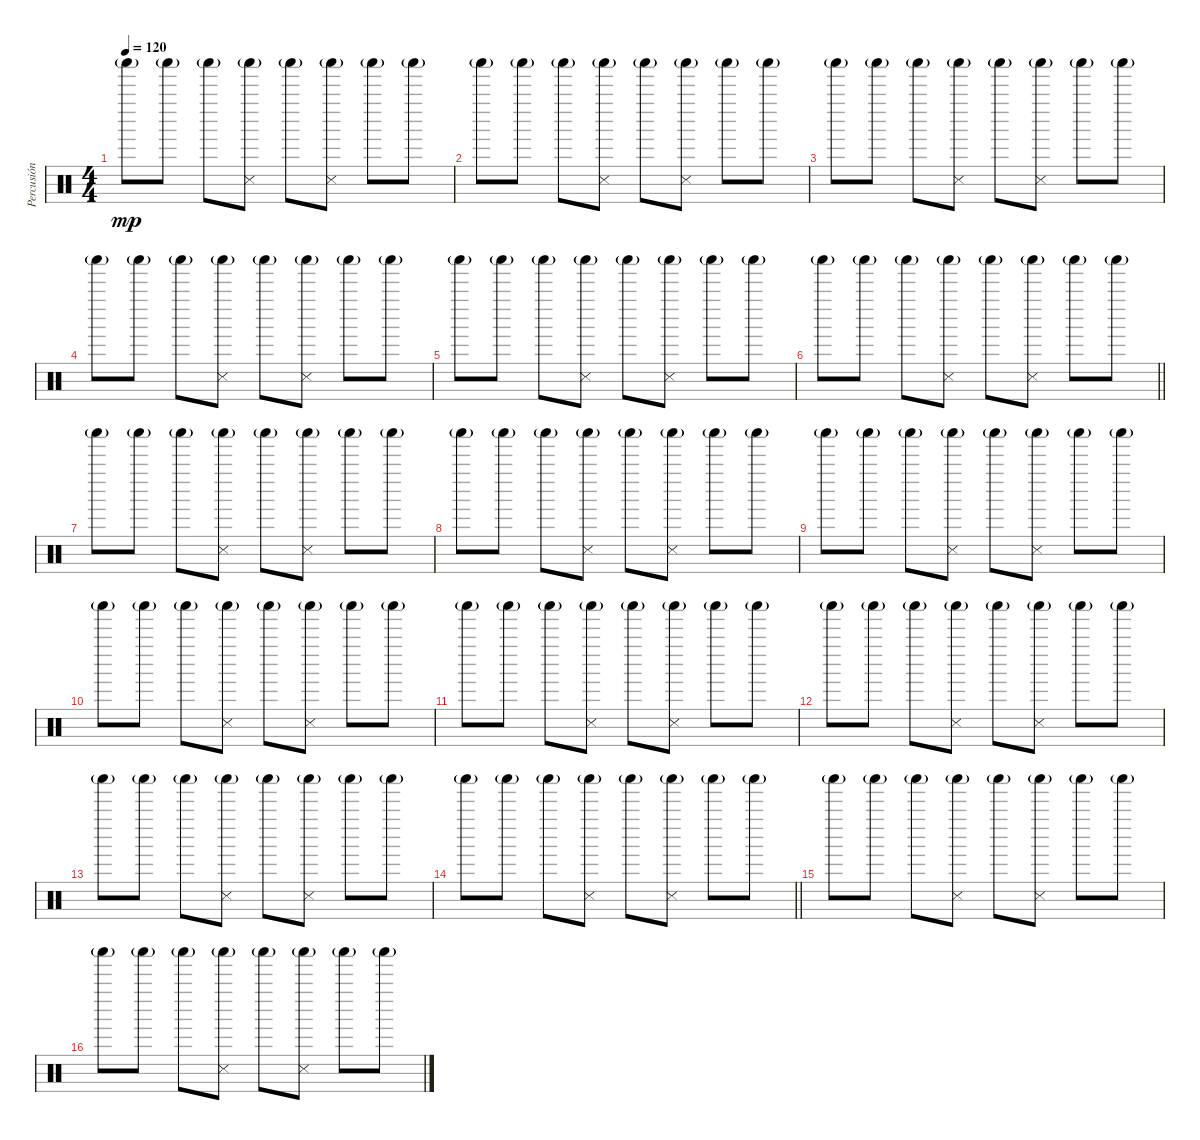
\track ("Percusión" "Percusión") {instrument percussion}
\staff {score}
\articulation defaults
\ts (4 4)
\tempo 120
\clef neutral
\ks c "Shaker (hit)"{g}.8{dy mp} "Shaker (hit)"{g}.8 "Shaker (hit)"{g}.8
("Snare (side stick) 3" "Shaker (hit)"{g}).8 "Shaker (hit)"{g}.8 ("Snare (side stick) 3" "Shaker (hit)"{g}).8 "Shaker (hit)"{g}.8 "Shaker (hit)"{g}.8 |
"Shaker (hit)"{g}.8 "Shaker (hit)"{g}.8 "Shaker (hit)"{g}.8 ("Snare (side stick) 3" "Shaker (hit)"{g}).8 "Shaker (hit)"{g}.8 ("Snare (side stick) 3" "Shaker (hit)"{g}).8 "Shaker (hit)"{g}.8 "Shaker (hit)"{g}.8 |
"Shaker (hit)"{g}.8 "Shaker (hit)"{g}.8 "Shaker (hit)"{g}.8 ("Snare (side stick) 3" "Shaker (hit)"{g}).8 "Shaker (hit)"{g}.8 ("Snare (side stick) 3" "Shaker (hit)"{g}).8 "Shaker (hit)"{g}.8 "Shaker (hit)"{g}.8 |
"Shaker (hit)"{g}.8 "Shaker (hit)"{g}.8 "Shaker (hit)"{g}.8 ("Snare (side stick) 3" "Shaker (hit)"{g}).8 "Shaker (hit)"{g}.8 ("Snare (side stick) 3" "Shaker (hit)"{g}).8 "Shaker (hit)"{g}.8 "Shaker (hit)"{g}.8 |
"Shaker (hit)"{g}.8 "Shaker (hit)"{g}.8 "Shaker (hit)"{g}.8 ("Snare (side stick) 3" "Shaker (hit)"{g}).8 "Shaker (hit)"{g}.8 ("Snare (side stick) 3" "Shaker (hit)"{g}).8 "Shaker (hit)"{g}.8 "Shaker (hit)"{g}.8 |
\barLineRight lightlight "Shaker (hit)"{g}.8 "Shaker (hit)"{g}.8 "Shaker (hit)"{g}.8
("Snare (side stick) 3" "Shaker (hit)"{g}).8 "Shaker (hit)"{g}.8 ("Snare (side stick) 3" "Shaker (hit)"{g}).8 "Shaker (hit)"{g}.8 "Shaker (hit)"{g}.8 |
"Shaker (hit)"{g}.8 "Shaker (hit)"{g}.8 "Shaker (hit)"{g}.8 ("Snare (side stick) 3" "Shaker (hit)"{g}).8 "Shaker (hit)"{g}.8 ("Snare (side stick) 3" "Shaker (hit)"{g}).8 "Shaker (hit)"{g}.8 "Shaker (hit)"{g}.8 |
"Shaker (hit)"{g}.8 "Shaker (hit)"{g}.8 "Shaker (hit)"{g}.8 ("Snare (side stick) 3" "Shaker (hit)"{g}).8 "Shaker (hit)"{g}.8 ("Snare (side stick) 3" "Shaker (hit)"{g}).8 "Shaker (hit)"{g}.8 "Shaker (hit)"{g}.8 |
"Shaker (hit)"{g}.8 "Shaker (hit)"{g}.8 "Shaker (hit)"{g}.8 ("Snare (side stick) 3" "Shaker (hit)"{g}).8 "Shaker (hit)"{g}.8 ("Snare (side stick) 3" "Shaker (hit)"{g}).8 "Shaker (hit)"{g}.8 "Shaker (hit)"{g}.8 |
"Shaker (hit)"{g}.8 "Shaker (hit)"{g}.8 "Shaker (hit)"{g}.8 ("Snare (side stick) 3" "Shaker (hit)"{g}).8 "Shaker (hit)"{g}.8 ("Snare (side stick) 3" "Shaker (hit)"{g}).8 "Shaker (hit)"{g}.8 "Shaker (hit)"{g}.8 |
"Shaker (hit)"{g}.8 "Shaker (hit)"{g}.8 "Shaker (hit)"{g}.8 ("Snare (side stick) 3" "Shaker (hit)"{g}).8 "Shaker (hit)"{g}.8 ("Snare (side stick) 3" "Shaker (hit)"{g}).8 "Shaker (hit)"{g}.8 "Shaker (hit)"{g}.8 |
"Shaker (hit)"{g}.8 "Shaker (hit)"{g}.8 "Shaker (hit)"{g}.8 ("Snare (side stick) 3" "Shaker (hit)"{g}).8 "Shaker (hit)"{g}.8 ("Snare (side stick) 3" "Shaker (hit)"{g}).8 "Shaker (hit)"{g}.8 "Shaker (hit)"{g}.8 |
"Shaker (hit)"{g}.8 "Shaker (hit)"{g}.8 "Shaker (hit)"{g}.8 ("Snare (side stick) 3" "Shaker (hit)"{g}).8 "Shaker (hit)"{g}.8 ("Snare (side stick) 3" "Shaker (hit)"{g}).8 "Shaker (hit)"{g}.8 "Shaker (hit)"{g}.8 |
\barLineRight lightlight "Shaker (hit)"{g}.8 "Shaker (hit)"{g}.8 "Shaker (hit)"{g}.8
("Snare (side stick) 3" "Shaker (hit)"{g}).8 "Shaker (hit)"{g}.8 ("Snare (side stick) 3" "Shaker (hit)"{g}).8 "Shaker (hit)"{g}.8 "Shaker (hit)"{g}.8 |
"Shaker (hit)"{g}.8 "Shaker (hit)"{g}.8 "Shaker (hit)"{g}.8 ("Snare (side stick) 3" "Shaker (hit)"{g}).8 "Shaker (hit)"{g}.8 ("Snare (side stick) 3" "Shaker (hit)"{g}).8 "Shaker (hit)"{g}.8 "Shaker (hit)"{g}.8 |
"Shaker (hit)"{g}.8 "Shaker (hit)"{g}.8 "Shaker (hit)"{g}.8 ("Snare (side stick) 3" "Shaker (hit)"{g}).8 "Shaker (hit)"{g}.8 ("Snare (side stick) 3" "Shaker (hit)"{g}).8 "Shaker (hit)"{g}.8 "Shaker (hit)"{g}.8
